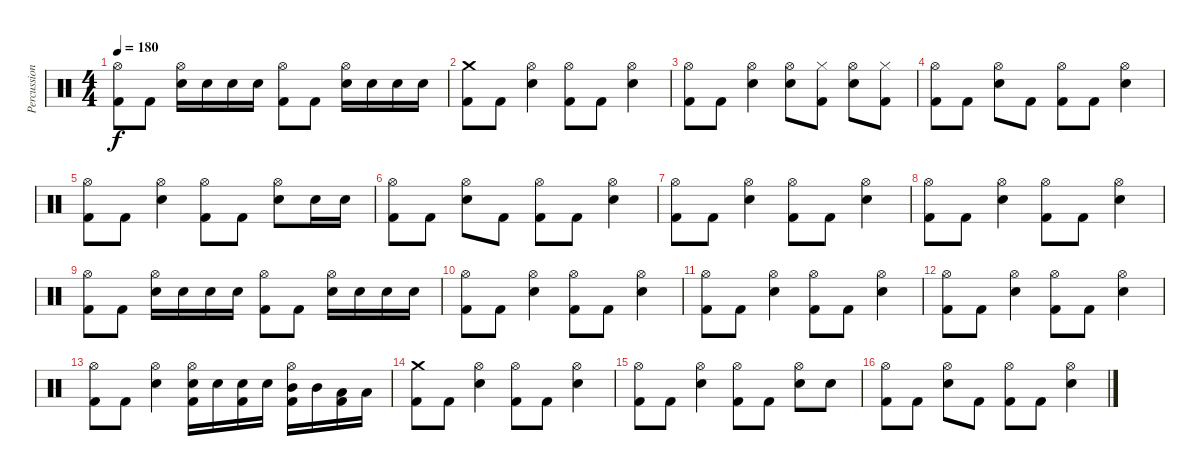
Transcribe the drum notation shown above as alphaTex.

\track ("Percussions" "Percussion") {instrument percussion}
\staff {score}
\articulation defaults
\ts (4 4)
\tempo 180
\clef neutral
\ks c
("Hi-Hat (open)" "Kick (hit) 2").8{dy f} "Kick (hit) 2".8 ("Electric Snare (hit)" "Hi-Hat (open)").16 "Electric Snare (hit)".16 "Electric Snare (hit)".16 "Electric Snare (hit)".16 ("Hi-Hat (open)" "Kick (hit) 2").8 "Kick (hit) 2".8 ("Electric Snare (hit)" "Hi-Hat (open)").16 "Electric Snare (hit)".16 "Electric Snare (hit)".16 "Electric Snare (hit)".16 |
("Crash medium (hit)" "Kick (hit) 2").8 "Kick (hit) 2".8 ("Electric Snare (hit)" "Hi-Hat (open)").4 ("Hi-Hat (open)" "Kick (hit) 2").8 "Kick (hit) 2".8 ("Electric Snare (hit)" "Hi-Hat (open)").4 |
("Hi-Hat (open)" "Kick (hit) 2").8 "Kick (hit) 2".8 ("Electric Snare (hit)" "Hi-Hat (open)").4 ("Electric Snare (hit)" "Hi-Hat (open)").8 ("Hi-Hat (closed)" "Kick (hit) 2").8 ("Electric Snare (hit)" "Hi-Hat (open)").8 ("Hi-Hat (closed)" "Kick (hit) 2").8 |
("Hi-Hat (open)" "Kick (hit) 2").8 "Kick (hit) 2".8 ("Electric Snare (hit)" "Hi-Hat (open)").8 "Kick (hit) 2".8 ("Hi-Hat (open)" "Kick (hit) 2").8 "Kick (hit) 2".8 ("Electric Snare (hit)" "Hi-Hat (open)").4 |
("Hi-Hat (open)" "Kick (hit) 2").8 "Kick (hit) 2".8 ("Electric Snare (hit)" "Hi-Hat (open)").4 ("Hi-Hat (open)" "Kick (hit) 2").8 "Kick (hit) 2".8 ("Electric Snare (hit)" "Hi-Hat (open)").8 "Electric Snare (hit)".16 "Electric Snare (hit)".16 |
("Hi-Hat (open)" "Kick (hit) 2").8 "Kick (hit) 2".8 ("Electric Snare (hit)" "Hi-Hat (open)").8 "Kick (hit) 2".8 ("Hi-Hat (open)" "Kick (hit) 2").8 "Kick (hit) 2".8 ("Electric Snare (hit)" "Hi-Hat (open)").4 |
("Hi-Hat (open)" "Kick (hit) 2").8 "Kick (hit) 2".8 ("Electric Snare (hit)" "Hi-Hat (open)").4 ("Hi-Hat (open)" "Kick (hit) 2").8 "Kick (hit) 2".8 ("Electric Snare (hit)" "Hi-Hat (open)").4 |
("Hi-Hat (open)" "Kick (hit) 2").8 "Kick (hit) 2".8 ("Electric Snare (hit)" "Hi-Hat (open)").4 ("Hi-Hat (open)" "Kick (hit) 2").8 "Kick (hit) 2".8 ("Electric Snare (hit)" "Hi-Hat (open)").4 |
("Hi-Hat (open)" "Kick (hit) 2").8 "Kick (hit) 2".8 ("Electric Snare (hit)" "Hi-Hat (open)").16 "Electric Snare (hit)".16 "Electric Snare (hit)".16 "Electric Snare (hit)".16 ("Hi-Hat (open)" "Kick (hit) 2").8 "Kick (hit) 2".8 ("Electric Snare (hit)" "Hi-Hat (open)").16 "Electric Snare (hit)".16 "Electric Snare (hit)".16 "Electric Snare (hit)".16 |
("Hi-Hat (open)" "Kick (hit) 2").8 "Kick (hit) 2".8 ("Electric Snare (hit)" "Hi-Hat (open)").4 ("Hi-Hat (open)" "Kick (hit) 2").8 "Kick (hit) 2".8 ("Electric Snare (hit)" "Hi-Hat (open)").4 |
("Hi-Hat (open)" "Kick (hit) 2").8 "Kick (hit) 2".8 ("Electric Snare (hit)" "Hi-Hat (open)").4 ("Hi-Hat (open)" "Kick (hit) 2").8 "Kick (hit) 2".8 ("Electric Snare (hit)" "Hi-Hat (open)").4 |
("Hi-Hat (open)" "Kick (hit) 2").8 "Kick (hit) 2".8 ("Electric Snare (hit)" "Hi-Hat (open)").4 ("Hi-Hat (open)" "Kick (hit) 2").8 "Kick (hit) 2".8 ("Electric Snare (hit)" "Hi-Hat (open)").4 |
("Hi-Hat (open)" "Kick (hit) 2").8 "Kick (hit) 2".8 ("Electric Snare (hit)" "Hi-Hat (open)").4 ("Electric Snare (hit)" "Hi-Hat (open)" "Kick (hit) 2").16 "Electric Snare (hit)".16 ("Electric Snare (hit)" "Kick (hit) 2").16 "Electric Snare (hit)".16 ("Mid Tom (hit)" "Hi-Hat (open)" "Kick (hit) 2").16 "Mid Tom (hit)".16 ("Low Tom (hit)" "Kick (hit) 2").16 "Low Tom (hit)".16 |
("Crash medium (hit)" "Kick (hit) 2").8 "Kick (hit) 2".8 ("Electric Snare (hit)" "Hi-Hat (open)").4 ("Hi-Hat (open)" "Kick (hit) 2").8 "Kick (hit) 2".8 ("Electric Snare (hit)" "Hi-Hat (open)").4 |
("Hi-Hat (open)" "Kick (hit) 2").8 "Kick (hit) 2".8 ("Electric Snare (hit)" "Hi-Hat (open)").4 ("Hi-Hat (open)" "Kick (hit) 2").8 "Kick (hit) 2".8 ("Electric Snare (hit)" "Hi-Hat (open)").8 "Electric Snare (hit)".8 |
("Hi-Hat (open)" "Kick (hit) 2").8 "Kick (hit) 2".8 ("Electric Snare (hit)" "Hi-Hat (open)").8 "Kick (hit) 2".8 ("Hi-Hat (open)" "Kick (hit) 2").8 "Kick (hit) 2".8 ("Electric Snare (hit)" "Hi-Hat (open)").4
